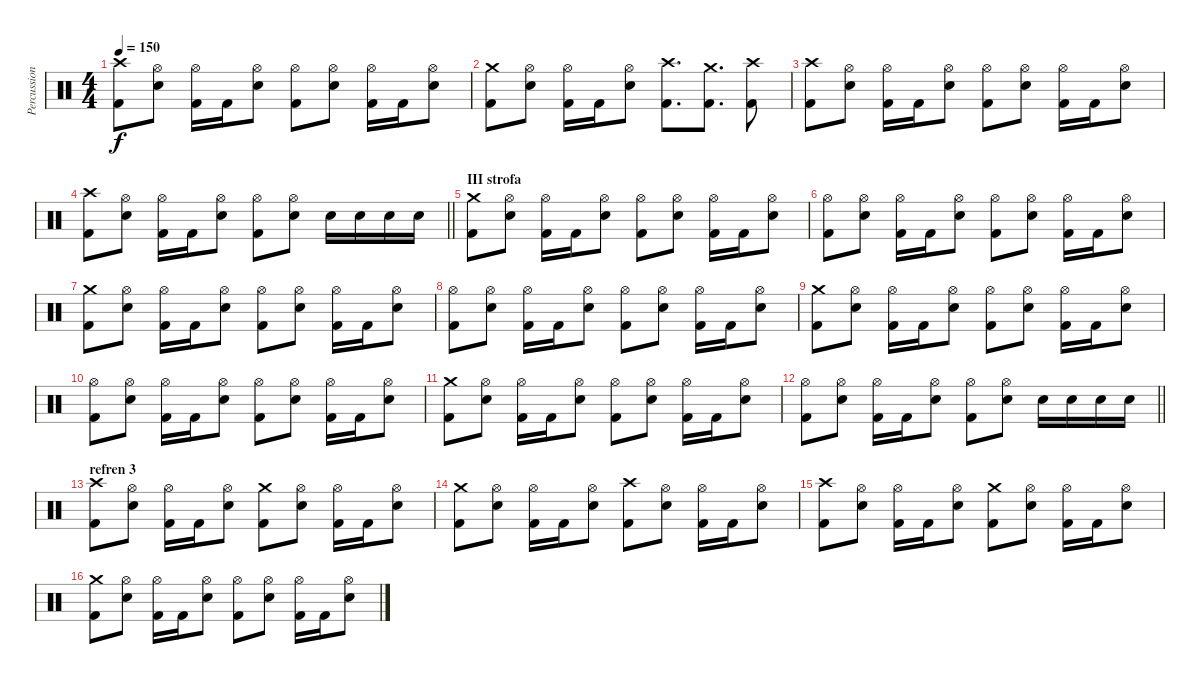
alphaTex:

\track ("Percussion" "Percussion") {instrument percussion}
\staff {score}
\articulation defaults
\ts (4 4)
\tempo 150
\clef neutral
\ks c
("Kick (hit) 2" "Crash high (hit)").8{dy f} ("Snare (hit) 2" "Hi-Hat (open)").8 ("Kick (hit) 2" "Hi-Hat (open)").16 "Kick (hit) 2".16 ("Snare (hit) 2" "Hi-Hat (open)").8 ("Kick (hit) 2" "Hi-Hat (open)").8 ("Snare (hit) 2" "Hi-Hat (open)").8 ("Kick (hit) 2" "Hi-Hat (open)").16 "Kick (hit) 2".16 ("Snare (hit) 2" "Hi-Hat (open)").8 |
("Kick (hit) 2" "Crash medium (hit)").8 ("Snare (hit) 2" "Hi-Hat (open)").8 ("Kick (hit) 2" "Hi-Hat (open)").16 "Kick (hit) 2".16 ("Snare (hit) 2" "Hi-Hat (open)").8 ("Kick (hit) 2" "Crash high (hit)").8{d} ("Kick (hit) 2" "Crash medium (hit)").8{d} ("Kick (hit) 2" "Crash high (hit)").8 |
("Kick (hit) 2" "Crash high (hit)").8 ("Snare (hit) 2" "Hi-Hat (open)").8 ("Kick (hit) 2" "Hi-Hat (open)").16 "Kick (hit) 2".16 ("Snare (hit) 2" "Hi-Hat (open)").8 ("Kick (hit) 2" "Hi-Hat (open)").8 ("Snare (hit) 2" "Hi-Hat (open)").8 ("Kick (hit) 2" "Hi-Hat (open)").16 "Kick (hit) 2".16 ("Snare (hit) 2" "Hi-Hat (open)").8 |
\barLineRight lightlight
("Kick (hit) 2" "Crash high (hit)").8 ("Snare (hit) 2" "Hi-Hat (open)").8 ("Kick (hit) 2" "Hi-Hat (open)").16 "Kick (hit) 2".16 ("Snare (hit) 2" "Hi-Hat (open)").8 ("Kick (hit) 2" "Hi-Hat (open)").8 ("Snare (hit) 2" "Hi-Hat (open)").8 "Snare (hit) 2".16 "Snare (hit) 2".16 "Snare (hit) 2".16 "Snare (hit) 2".16 |
\section ("" "III strofa")
("Kick (hit) 2" "Crash medium (hit)").8 ("Snare (hit) 2" "Hi-Hat (open)").8 ("Kick (hit) 2" "Hi-Hat (open)").16 "Kick (hit) 2".16 ("Snare (hit) 2" "Hi-Hat (open)").8 ("Kick (hit) 2" "Hi-Hat (open)").8 ("Snare (hit) 2" "Hi-Hat (open)").8 ("Kick (hit) 2" "Hi-Hat (open)").16 "Kick (hit) 2".16 ("Snare (hit) 2" "Hi-Hat (open)").8 |
("Kick (hit) 2" "Hi-Hat (open)").8 ("Snare (hit) 2" "Hi-Hat (open)").8 ("Kick (hit) 2" "Hi-Hat (open)").16 "Kick (hit) 2".16 ("Snare (hit) 2" "Hi-Hat (open)").8 ("Kick (hit) 2" "Hi-Hat (open)").8 ("Snare (hit) 2" "Hi-Hat (open)").8 ("Kick (hit) 2" "Hi-Hat (open)").16 "Kick (hit) 2".16 ("Snare (hit) 2" "Hi-Hat (open)").8 |
("Kick (hit) 2" "Crash medium (hit)").8 ("Snare (hit) 2" "Hi-Hat (open)").8 ("Kick (hit) 2" "Hi-Hat (open)").16 "Kick (hit) 2".16 ("Snare (hit) 2" "Hi-Hat (open)").8 ("Kick (hit) 2" "Hi-Hat (open)").8 ("Snare (hit) 2" "Hi-Hat (open)").8 ("Kick (hit) 2" "Hi-Hat (open)").16 "Kick (hit) 2".16 ("Snare (hit) 2" "Hi-Hat (open)").8 |
("Kick (hit) 2" "Hi-Hat (open)").8 ("Snare (hit) 2" "Hi-Hat (open)").8 ("Kick (hit) 2" "Hi-Hat (open)").16 "Kick (hit) 2".16 ("Snare (hit) 2" "Hi-Hat (open)").8 ("Kick (hit) 2" "Hi-Hat (open)").8 ("Snare (hit) 2" "Hi-Hat (open)").8 ("Kick (hit) 2" "Hi-Hat (open)").16 "Kick (hit) 2".16 ("Snare (hit) 2" "Hi-Hat (open)").8 |
("Kick (hit) 2" "Crash medium (hit)").8 ("Snare (hit) 2" "Hi-Hat (open)").8 ("Kick (hit) 2" "Hi-Hat (open)").16 "Kick (hit) 2".16 ("Snare (hit) 2" "Hi-Hat (open)").8 ("Kick (hit) 2" "Hi-Hat (open)").8 ("Snare (hit) 2" "Hi-Hat (open)").8 ("Kick (hit) 2" "Hi-Hat (open)").16 "Kick (hit) 2".16 ("Snare (hit) 2" "Hi-Hat (open)").8 |
("Kick (hit) 2" "Hi-Hat (open)").8 ("Snare (hit) 2" "Hi-Hat (open)").8 ("Kick (hit) 2" "Hi-Hat (open)").16 "Kick (hit) 2".16 ("Snare (hit) 2" "Hi-Hat (open)").8 ("Kick (hit) 2" "Hi-Hat (open)").8 ("Snare (hit) 2" "Hi-Hat (open)").8 ("Kick (hit) 2" "Hi-Hat (open)").16 "Kick (hit) 2".16 ("Snare (hit) 2" "Hi-Hat (open)").8 |
("Kick (hit) 2" "Crash medium (hit)").8 ("Snare (hit) 2" "Hi-Hat (open)").8 ("Kick (hit) 2" "Hi-Hat (open)").16 "Kick (hit) 2".16 ("Snare (hit) 2" "Hi-Hat (open)").8 ("Kick (hit) 2" "Hi-Hat (open)").8 ("Snare (hit) 2" "Hi-Hat (open)").8 ("Kick (hit) 2" "Hi-Hat (open)").16 "Kick (hit) 2".16 ("Snare (hit) 2" "Hi-Hat (open)").8 |
\barLineRight lightlight
("Kick (hit) 2" "Hi-Hat (open)").8 ("Snare (hit) 2" "Hi-Hat (open)").8 ("Kick (hit) 2" "Hi-Hat (open)").16 "Kick (hit) 2".16 ("Snare (hit) 2" "Hi-Hat (open)").8 ("Kick (hit) 2" "Hi-Hat (open)").8 ("Snare (hit) 2" "Hi-Hat (open)").8 "Snare (hit) 2".16 "Snare (hit) 2".16 "Snare (hit) 2".16 "Snare (hit) 2".16 |
\section ("" "refren 3")
("Kick (hit) 2" "Crash high (hit)").8 ("Snare (hit) 2" "Hi-Hat (open)").8 ("Kick (hit) 2" "Hi-Hat (open)").16 "Kick (hit) 2".16 ("Snare (hit) 2" "Hi-Hat (open)").8 ("Kick (hit) 2" "Crash medium (hit)").8 ("Snare (hit) 2" "Hi-Hat (open)").8 ("Kick (hit) 2" "Hi-Hat (open)").16 "Kick (hit) 2".16 ("Snare (hit) 2" "Hi-Hat (open)").8 |
("Kick (hit) 2" "Crash medium (hit)").8 ("Snare (hit) 2" "Hi-Hat (open)").8 ("Kick (hit) 2" "Hi-Hat (open)").16 "Kick (hit) 2".16 ("Snare (hit) 2" "Hi-Hat (open)").8 ("Kick (hit) 2" "Crash high (hit)").8 ("Snare (hit) 2" "Hi-Hat (open)").8 ("Kick (hit) 2" "Hi-Hat (open)").16 "Kick (hit) 2".16 ("Snare (hit) 2" "Hi-Hat (open)").8 |
("Kick (hit) 2" "Crash high (hit)").8 ("Snare (hit) 2" "Hi-Hat (open)").8 ("Kick (hit) 2" "Hi-Hat (open)").16 "Kick (hit) 2".16 ("Snare (hit) 2" "Hi-Hat (open)").8 ("Kick (hit) 2" "Crash medium (hit)").8 ("Snare (hit) 2" "Hi-Hat (open)").8 ("Kick (hit) 2" "Hi-Hat (open)").16 "Kick (hit) 2".16 ("Snare (hit) 2" "Hi-Hat (open)").8 |
("Kick (hit) 2" "Crash medium (hit)").8 ("Snare (hit) 2" "Hi-Hat (open)").8 ("Kick (hit) 2" "Hi-Hat (open)").16 "Kick (hit) 2".16 ("Snare (hit) 2" "Hi-Hat (open)").8 ("Kick (hit) 2" "Hi-Hat (open)").8 ("Snare (hit) 2" "Hi-Hat (open)").8 ("Kick (hit) 2" "Hi-Hat (open)").16 "Kick (hit) 2".16 ("Snare (hit) 2" "Hi-Hat (open)").8
